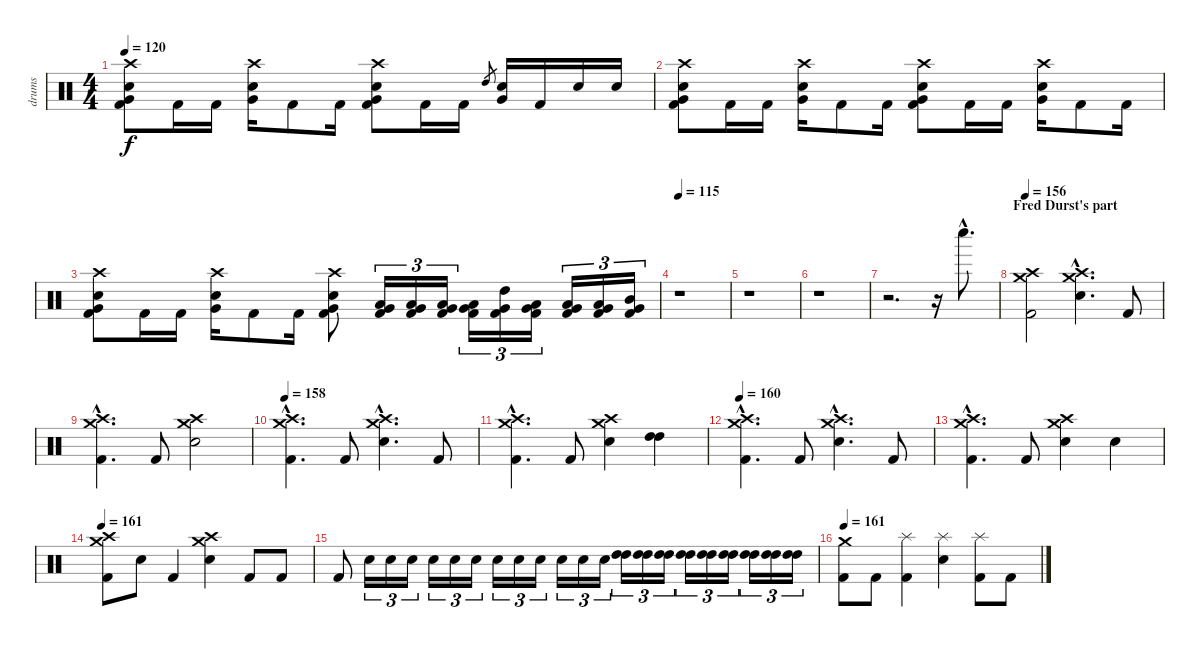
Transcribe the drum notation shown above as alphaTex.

\track ("drums" "drums") {instrument percussion}
\staff {score}
\articulation defaults
\ts (4 4)
\tempo 120
\clef neutral
\ks c
("Crash high (hit)" "Electric Snare (hit)" "Very Low Tom (hit)" "Kick (hit) 2").8{dy f} "Kick (hit) 2".16 "Kick (hit) 2".16 ("Crash high (hit)" "Electric Snare (hit)" "Very Low Tom (hit)").16 "Kick (hit) 2".8 "Kick (hit) 2".16 ("Crash high (hit)" "Electric Snare (hit)" "Very Low Tom (hit)" "Kick (hit) 2").8 "Kick (hit) 2".16 "Kick (hit) 2".16 "High Tom (hit)".8{gr} ("Electric Snare (hit)" "Very Low Tom (hit)").16 "Kick (hit) 2".16 "Electric Snare (hit)".16 "Electric Snare (hit)".16 |
("Crash high (hit)" "Electric Snare (hit)" "Very Low Tom (hit)" "Kick (hit) 2").8 "Kick (hit) 2".16 "Kick (hit) 2".16 ("Crash high (hit)" "Electric Snare (hit)" "Very Low Tom (hit)").16 "Kick (hit) 2".8 "Kick (hit) 2".16 ("Crash high (hit)" "Electric Snare (hit)" "Very Low Tom (hit)" "Kick (hit) 2").8 "Kick (hit) 2".16 "Kick (hit) 2".16 ("Crash high (hit)" "Electric Snare (hit)" "Very Low Tom (hit)").16 "Kick (hit) 2".8 "Kick (hit) 2".16 |
("Crash high (hit)" "Electric Snare (hit)" "Very Low Tom (hit)" "Kick (hit) 2").8 "Kick (hit) 2".16 "Kick (hit) 2".16 ("Crash high (hit)" "Electric Snare (hit)" "Very Low Tom (hit)").16 "Kick (hit) 2".8 "Kick (hit) 2".16 ("Crash high (hit)" "Electric Snare (hit)" "Very Low Tom (hit)" "Kick (hit) 2").8 ("Low Tom (hit)" "Very Low Tom (hit)" "Kick (hit) 2").16{tu (3 2)} ("Low Tom (hit)" "Very Low Tom (hit)" "Kick (hit) 2").16{tu (3 2)} ("Low Tom (hit)" "Very Low Tom (hit)" "Kick (hit) 2").16{tu (3 2)} ("Low Tom (hit)" "Very Low Tom (hit)" "Kick (hit) 2").16{tu (3 2)} ("High Tom (hit)" "Very Low Tom (hit)" "Kick (hit) 2").16{tu (3 2)} ("Low Tom (hit)" "Very Low Tom (hit)" "Kick (hit) 2").16{tu (3 2)} ("Low Tom (hit)" "Very Low Tom (hit)" "Kick (hit) 2").16{tu (3 2)} ("Low Tom (hit)" "Very Low Tom (hit)" "Kick (hit) 2").16{tu (3 2)} ("Mid Tom (hit)" "Very Low Tom (hit)" "Kick (hit) 2").16{tu (3 2)} |
\tempo 115
r.1 |
r.1 |
r.1 |
r.2{d} r.16 "Whistle low (hit)"{hac}.8{d} |
\section ("" "Fred Durst's part")
\tempo 156
("Crash medium (hit)" "Crash high (hit)" "Kick (hit) 2").2 ("Crash medium (hit)"{hac} "Crash high (hit)"{hac} "Electric Snare (hit)"{hac}).4{d} "Kick (hit) 2".8 |
("Crash medium (hit)"{hac} "Crash high (hit)"{hac} "Kick (hit) 2"{hac}).4{d} "Kick (hit) 2".8 ("Crash medium (hit)" "Crash high (hit)" "Electric Snare (hit)").2 |
\tempo 158
("Crash medium (hit)"{hac} "Crash high (hit)"{hac} "Kick (hit) 2"{hac}).4{d} "Kick (hit) 2".8 ("Crash medium (hit)"{hac} "Crash high (hit)"{hac} "Electric Snare (hit)"{hac}).4{d} "Kick (hit) 2".8 |
("Crash medium (hit)"{hac} "Crash high (hit)"{hac} "Kick (hit) 2"{hac}).4{d} "Kick (hit) 2".8 ("Crash medium (hit)" "Crash high (hit)" "Electric Snare (hit)").4 ("High Tom (hit)" "High Tom (hit)").4 |
\tempo 160
("Crash medium (hit)"{hac} "Crash high (hit)"{hac} "Kick (hit) 2"{hac}).4{d} "Kick (hit) 2".8 ("Crash medium (hit)"{hac} "Crash high (hit)"{hac} "Electric Snare (hit)"{hac}).4{d} "Kick (hit) 2".8 |
("Crash medium (hit)"{hac} "Crash high (hit)"{hac} "Kick (hit) 2"{hac}).4{d} "Kick (hit) 2".8 ("Crash medium (hit)" "Crash high (hit)" "Electric Snare (hit)").4 "Electric Snare (hit)".4 |
\tempo 161
("Crash high (hit)" "Crash medium (hit)" "Kick (hit) 2").8 "Electric Snare (hit)".8 "Kick (hit) 2".4 ("Crash high (hit)" "Crash medium (hit)" "Electric Snare (hit)").4 "Kick (hit) 2".8 "Kick (hit) 2".8 |
"Kick (hit) 2".8 "Electric Snare (hit)".16{tu (3 2)} "Electric Snare (hit)".16{tu (3 2)} "Electric Snare (hit)".16{tu (3 2)} "Electric Snare (hit)".16{tu (3 2)} "Electric Snare (hit)".16{tu (3 2)} "Electric Snare (hit)".16{tu (3 2)} "Electric Snare (hit)".16{tu (3 2)} "Electric Snare (hit)".16{tu (3 2)} "Electric Snare (hit)".16{tu (3 2)} "Electric Snare (hit)".16{tu (3 2)} "Electric Snare (hit)".16{tu (3 2)} "Electric Snare (hit)".16{tu (3 2)} ("High Tom (hit)" "High Tom (hit)").16{tu (3 2)} ("High Tom (hit)" "High Tom (hit)").16{tu (3 2)} ("High Tom (hit)" "High Tom (hit)").16{tu (3 2)} ("High Tom (hit)" "High Tom (hit)").16{tu (3 2)} ("High Tom (hit)" "High Tom (hit)").16{tu (3 2)} ("High Tom (hit)" "High Tom (hit)").16{tu (3 2)} ("High Tom (hit)" "High Tom (hit)").16{tu (3 2)} ("High Tom (hit)" "High Tom (hit)").16{tu (3 2)} ("High Tom (hit)" "High Tom (hit)").16{tu (3 2)} |
\tempo 161
("Crash medium (hit)" "Kick (hit) 2").8 "Kick (hit) 2".8 ("Splash (hit)" "Kick (hit) 2").4 ("Splash (hit)" "Electric Snare (hit)").4 ("Splash (hit)" "Kick (hit) 2").8 "Kick (hit) 2".8
